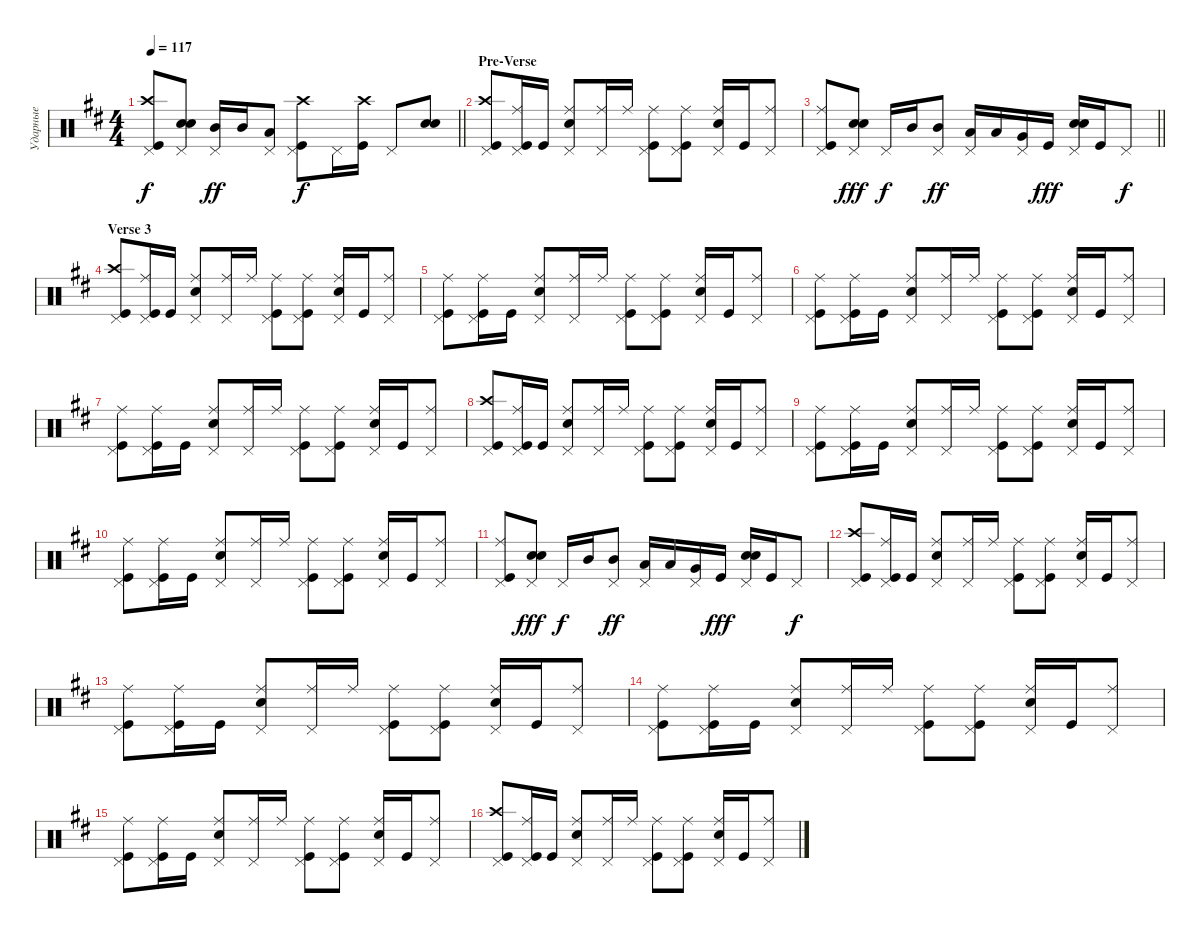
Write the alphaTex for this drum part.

\track ("Ударные" "Ударные") {instrument percussion}
\staff {score}
\articulation defaults
\ts (4 4)
\tempo 117
\clef neutral
\barLineRight lightlight
\ks bminor
("Kick (hit)" "Crash high (hit)" "Pedal Hi-Hat (hit)").8{dy f} ("Snare (hit) 2" "Snare (hit) 2" "Pedal Hi-Hat (hit)").8{bd 240} ("Mid Tom (hit)" "Pedal Hi-Hat (hit)").16{dy ff} "Mid Tom (hit)".16 ("Low Tom (hit)" "Pedal Hi-Hat (hit)").8 ("Kick (hit)" "Crash high (hit)" "Pedal Hi-Hat (hit)").8{dy f} "Pedal Hi-Hat (hit)".16 ("Kick (hit)" "Crash high (hit)").16 "Pedal Hi-Hat (hit)".8 ("Snare (hit) 2" "Snare (hit) 2").8{bd 240} |
\section ("" "Pre-Verse")
("Kick (hit)" "Crash high (hit)" "Pedal Hi-Hat (hit)").8 ("Kick (hit)" "Ride (middle)" "Pedal Hi-Hat (hit)").16 "Kick (hit)".16 ("Snare (hit) 2" "Ride (middle)" "Pedal Hi-Hat (hit)").8 ("Ride (middle)" "Pedal Hi-Hat (hit)").16 "Ride (middle)".16 ("Kick (hit)" "Ride (middle)" "Pedal Hi-Hat (hit)").8 ("Ride (middle)" "Kick (hit)" "Pedal Hi-Hat (hit)").8 ("Snare (hit) 2" "Ride (middle)" "Pedal Hi-Hat (hit)").16 "Kick (hit)".16 ("Ride (middle)" "Pedal Hi-Hat (hit)").8 |
\barLineRight lightlight
("Kick (hit)" "Pedal Hi-Hat (hit)" "Ride (middle)").8 ("Snare (hit) 2" "Snare (hit) 2" "Pedal Hi-Hat (hit)").8{bd 480 dy fff} "Pedal Hi-Hat (hit)".16{dy f} "Mid Tom (hit)".16 ("Pedal Hi-Hat (hit)" "Mid Tom (hit)").8{dy ff} ("Pedal Hi-Hat (hit)" "Low Tom (hit)").16 "Low Tom (hit)".16 ("Pedal Hi-Hat (hit)" "Very Low Tom (hit)").16 "Kick (hit)".16{dy fff} ("Snare (hit) 2" "Pedal Hi-Hat (hit)" "Snare (hit) 2").16{bd 60} "Kick (hit)".16 "Pedal Hi-Hat (hit)".8{dy f} |
\section ("" "Verse 3")
\ks d
("Kick (hit)" "Crash high (hit)" "Pedal Hi-Hat (hit)").8 ("Kick (hit)" "Ride (middle)" "Pedal Hi-Hat (hit)").16 "Kick (hit)".16 ("Snare (hit) 2" "Ride (middle)" "Pedal Hi-Hat (hit)").8 ("Ride (middle)" "Pedal Hi-Hat (hit)").16 "Ride (middle)".16 ("Kick (hit)" "Ride (middle)" "Pedal Hi-Hat (hit)").8 ("Ride (middle)" "Kick (hit)" "Pedal Hi-Hat (hit)").8 ("Snare (hit) 2" "Ride (middle)" "Pedal Hi-Hat (hit)").16 "Kick (hit)".16 ("Ride (middle)" "Pedal Hi-Hat (hit)").8 |
("Kick (hit)" "Ride (middle)" "Pedal Hi-Hat (hit)").8 ("Kick (hit)" "Ride (middle)" "Pedal Hi-Hat (hit)").16 "Kick (hit)".16 ("Snare (hit) 2" "Ride (middle)" "Pedal Hi-Hat (hit)").8 ("Ride (middle)" "Pedal Hi-Hat (hit)").16 "Ride (middle)".16 ("Kick (hit)" "Ride (middle)" "Pedal Hi-Hat (hit)").8 ("Ride (middle)" "Kick (hit)" "Pedal Hi-Hat (hit)").8 ("Snare (hit) 2" "Ride (middle)" "Pedal Hi-Hat (hit)").16 "Kick (hit)".16 ("Ride (middle)" "Pedal Hi-Hat (hit)").8 |
("Kick (hit)" "Ride (middle)" "Pedal Hi-Hat (hit)").8 ("Kick (hit)" "Ride (middle)" "Pedal Hi-Hat (hit)").16 "Kick (hit)".16 ("Snare (hit) 2" "Ride (middle)" "Pedal Hi-Hat (hit)").8 ("Ride (middle)" "Pedal Hi-Hat (hit)").16 "Ride (middle)".16 ("Kick (hit)" "Ride (middle)" "Pedal Hi-Hat (hit)").8 ("Ride (middle)" "Kick (hit)" "Pedal Hi-Hat (hit)").8 ("Snare (hit) 2" "Ride (middle)" "Pedal Hi-Hat (hit)").16 "Kick (hit)".16 ("Ride (middle)" "Pedal Hi-Hat (hit)").8 |
("Kick (hit)" "Ride (middle)" "Pedal Hi-Hat (hit)").8 ("Kick (hit)" "Ride (middle)" "Pedal Hi-Hat (hit)").16 "Kick (hit)".16 ("Snare (hit) 2" "Ride (middle)" "Pedal Hi-Hat (hit)").8 ("Ride (middle)" "Pedal Hi-Hat (hit)").16 "Ride (middle)".16 ("Kick (hit)" "Ride (middle)" "Pedal Hi-Hat (hit)").8 ("Ride (middle)" "Kick (hit)" "Pedal Hi-Hat (hit)").8 ("Snare (hit) 2" "Ride (middle)" "Pedal Hi-Hat (hit)").16 "Kick (hit)".16 ("Ride (middle)" "Pedal Hi-Hat (hit)").8 |
("Kick (hit)" "Crash high (hit)" "Pedal Hi-Hat (hit)").8 ("Kick (hit)" "Ride (middle)" "Pedal Hi-Hat (hit)").16 "Kick (hit)".16 ("Snare (hit) 2" "Ride (middle)" "Pedal Hi-Hat (hit)").8 ("Ride (middle)" "Pedal Hi-Hat (hit)").16 "Ride (middle)".16 ("Kick (hit)" "Ride (middle)" "Pedal Hi-Hat (hit)").8 ("Ride (middle)" "Kick (hit)" "Pedal Hi-Hat (hit)").8 ("Snare (hit) 2" "Ride (middle)" "Pedal Hi-Hat (hit)").16 "Kick (hit)".16 ("Ride (middle)" "Pedal Hi-Hat (hit)").8 |
("Kick (hit)" "Ride (middle)" "Pedal Hi-Hat (hit)").8 ("Kick (hit)" "Ride (middle)" "Pedal Hi-Hat (hit)").16 "Kick (hit)".16 ("Snare (hit) 2" "Ride (middle)" "Pedal Hi-Hat (hit)").8 ("Ride (middle)" "Pedal Hi-Hat (hit)").16 "Ride (middle)".16 ("Kick (hit)" "Ride (middle)" "Pedal Hi-Hat (hit)").8 ("Ride (middle)" "Kick (hit)" "Pedal Hi-Hat (hit)").8 ("Snare (hit) 2" "Ride (middle)" "Pedal Hi-Hat (hit)").16 "Kick (hit)".16 ("Ride (middle)" "Pedal Hi-Hat (hit)").8 |
("Kick (hit)" "Ride (middle)" "Pedal Hi-Hat (hit)").8 ("Kick (hit)" "Ride (middle)" "Pedal Hi-Hat (hit)").16 "Kick (hit)".16 ("Snare (hit) 2" "Ride (middle)" "Pedal Hi-Hat (hit)").8 ("Ride (middle)" "Pedal Hi-Hat (hit)").16 "Ride (middle)".16 ("Kick (hit)" "Ride (middle)" "Pedal Hi-Hat (hit)").8 ("Ride (middle)" "Kick (hit)" "Pedal Hi-Hat (hit)").8 ("Snare (hit) 2" "Ride (middle)" "Pedal Hi-Hat (hit)").16 "Kick (hit)".16 ("Ride (middle)" "Pedal Hi-Hat (hit)").8 |
("Kick (hit)" "Pedal Hi-Hat (hit)" "Ride (middle)").8 ("Snare (hit) 2" "Snare (hit) 2" "Pedal Hi-Hat (hit)").8{bd 480 dy fff} "Pedal Hi-Hat (hit)".16{dy f} "Mid Tom (hit)".16 ("Pedal Hi-Hat (hit)" "Mid Tom (hit)").8{dy ff} ("Pedal Hi-Hat (hit)" "Low Tom (hit)").16 "Low Tom (hit)".16 ("Pedal Hi-Hat (hit)" "Very Low Tom (hit)").16 "Kick (hit)".16{dy fff} ("Snare (hit) 2" "Pedal Hi-Hat (hit)" "Snare (hit) 2").16{bd 60} "Kick (hit)".16 "Pedal Hi-Hat (hit)".8{dy f} |
("Kick (hit)" "Crash high (hit)" "Pedal Hi-Hat (hit)").8 ("Kick (hit)" "Ride (middle)" "Pedal Hi-Hat (hit)").16 "Kick (hit)".16 ("Snare (hit) 2" "Ride (middle)" "Pedal Hi-Hat (hit)").8 ("Ride (middle)" "Pedal Hi-Hat (hit)").16 "Ride (middle)".16 ("Kick (hit)" "Ride (middle)" "Pedal Hi-Hat (hit)").8 ("Ride (middle)" "Kick (hit)" "Pedal Hi-Hat (hit)").8 ("Snare (hit) 2" "Ride (middle)" "Pedal Hi-Hat (hit)").16 "Kick (hit)".16 ("Ride (middle)" "Pedal Hi-Hat (hit)").8 |
("Kick (hit)" "Ride (middle)" "Pedal Hi-Hat (hit)").8 ("Kick (hit)" "Ride (middle)" "Pedal Hi-Hat (hit)").16 "Kick (hit)".16 ("Snare (hit) 2" "Ride (middle)" "Pedal Hi-Hat (hit)").8 ("Ride (middle)" "Pedal Hi-Hat (hit)").16 "Ride (middle)".16 ("Kick (hit)" "Ride (middle)" "Pedal Hi-Hat (hit)").8 ("Ride (middle)" "Kick (hit)" "Pedal Hi-Hat (hit)").8 ("Snare (hit) 2" "Ride (middle)" "Pedal Hi-Hat (hit)").16 "Kick (hit)".16 ("Ride (middle)" "Pedal Hi-Hat (hit)").8 |
("Kick (hit)" "Ride (middle)" "Pedal Hi-Hat (hit)").8 ("Kick (hit)" "Ride (middle)" "Pedal Hi-Hat (hit)").16 "Kick (hit)".16 ("Snare (hit) 2" "Ride (middle)" "Pedal Hi-Hat (hit)").8 ("Ride (middle)" "Pedal Hi-Hat (hit)").16 "Ride (middle)".16 ("Kick (hit)" "Ride (middle)" "Pedal Hi-Hat (hit)").8 ("Ride (middle)" "Kick (hit)" "Pedal Hi-Hat (hit)").8 ("Snare (hit) 2" "Ride (middle)" "Pedal Hi-Hat (hit)").16 "Kick (hit)".16 ("Ride (middle)" "Pedal Hi-Hat (hit)").8 |
("Kick (hit)" "Ride (middle)" "Pedal Hi-Hat (hit)").8 ("Kick (hit)" "Ride (middle)" "Pedal Hi-Hat (hit)").16 "Kick (hit)".16 ("Snare (hit) 2" "Ride (middle)" "Pedal Hi-Hat (hit)").8 ("Ride (middle)" "Pedal Hi-Hat (hit)").16 "Ride (middle)".16 ("Kick (hit)" "Ride (middle)" "Pedal Hi-Hat (hit)").8 ("Ride (middle)" "Kick (hit)" "Pedal Hi-Hat (hit)").8 ("Snare (hit) 2" "Ride (middle)" "Pedal Hi-Hat (hit)").16 "Kick (hit)".16 ("Ride (middle)" "Pedal Hi-Hat (hit)").8 |
("Kick (hit)" "Crash high (hit)" "Pedal Hi-Hat (hit)").8 ("Kick (hit)" "Ride (middle)" "Pedal Hi-Hat (hit)").16 "Kick (hit)".16 ("Snare (hit) 2" "Ride (middle)" "Pedal Hi-Hat (hit)").8 ("Ride (middle)" "Pedal Hi-Hat (hit)").16 "Ride (middle)".16 ("Kick (hit)" "Ride (middle)" "Pedal Hi-Hat (hit)").8 ("Ride (middle)" "Kick (hit)" "Pedal Hi-Hat (hit)").8 ("Snare (hit) 2" "Ride (middle)" "Pedal Hi-Hat (hit)").16 "Kick (hit)".16 ("Ride (middle)" "Pedal Hi-Hat (hit)").8
